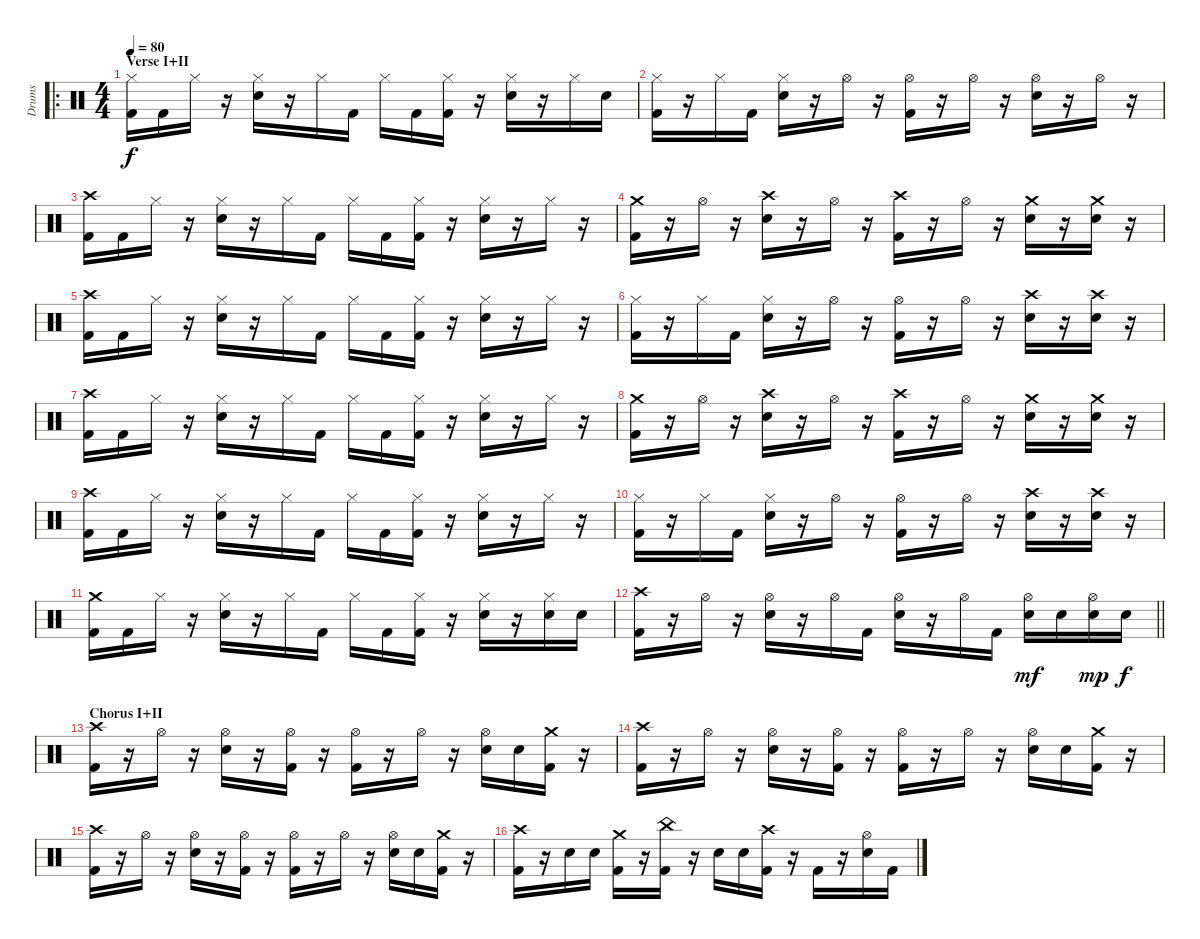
\track ("Drums" "Drums") {instrument percussion}
\staff {score}
\articulation defaults
\ro
\ts (4 4)
\section ("" "Verse I+II")
\tempo 80
\clef neutral
\ks c
("Hi-Hat (closed)" "Kick (hit) 2").16{dy f} "Kick (hit) 2".16 "Hi-Hat (closed)".16 r.16 ("Hi-Hat (closed)" "Electric Snare (hit)").16 r.16 "Hi-Hat (closed)".16 "Kick (hit) 2".16 "Hi-Hat (closed)".16 "Kick (hit) 2".16 ("Hi-Hat (closed)" "Kick (hit) 2").16 r.16 ("Hi-Hat (closed)" "Electric Snare (hit)").16 r.16 "Hi-Hat (closed)".16 "Electric Snare (hit)".16 |
("Hi-Hat (closed)" "Kick (hit) 2").16 r.16 "Hi-Hat (closed)".16 "Kick (hit) 2".16 ("Hi-Hat (closed)" "Electric Snare (hit)").16 r.16 "Hi-Hat (open)".16 r.16 ("Hi-Hat (open)" "Kick (hit) 2").16 r.16 "Hi-Hat (open)".16 r.16 ("Hi-Hat (open)" "Electric Snare (hit)").16 r.16 "Hi-Hat (open)".16 r.16 |
("Crash high (hit)" "Kick (hit) 2").16 "Kick (hit) 2".16 "Hi-Hat (closed)".16 r.16 ("Hi-Hat (closed)" "Electric Snare (hit)").16 r.16 "Hi-Hat (closed)".16 "Kick (hit) 2".16 "Hi-Hat (closed)".16 "Kick (hit) 2".16 ("Hi-Hat (closed)" "Kick (hit) 2").16 r.16 ("Hi-Hat (closed)" "Electric Snare (hit)").16 r.16 "Hi-Hat (closed)".16 r.16 |
("Crash medium (hit)" "Kick (hit) 2").16 r.16 "Hi-Hat (open)".16 r.16 ("Crash high (hit)" "Electric Snare (hit)").16 r.16 "Hi-Hat (open)".16 r.16 ("Crash high (hit)" "Kick (hit) 2").16 r.16 "Hi-Hat (open)".16 r.16 ("Crash medium (hit)" "Electric Snare (hit)").16 r.16 ("Crash medium (hit)" "Electric Snare (hit)").16 r.16 |
("Crash high (hit)" "Kick (hit) 2").16 "Kick (hit) 2".16 "Hi-Hat (closed)".16 r.16 ("Hi-Hat (closed)" "Electric Snare (hit)").16 r.16 "Hi-Hat (closed)".16 "Kick (hit) 2".16 "Hi-Hat (closed)".16 "Kick (hit) 2".16 ("Hi-Hat (closed)" "Kick (hit) 2").16 r.16 ("Hi-Hat (closed)" "Electric Snare (hit)").16 r.16 "Hi-Hat (closed)".16 r.16 |
("Hi-Hat (closed)" "Kick (hit) 2").16 r.16 "Hi-Hat (closed)".16 "Kick (hit) 2".16 ("Hi-Hat (closed)" "Electric Snare (hit)").16 r.16 "Hi-Hat (open)".16 r.16 ("Hi-Hat (open)" "Kick (hit) 2").16 r.16 "Hi-Hat (open)".16 r.16 ("Crash high (hit)" "Electric Snare (hit)").16 r.16 ("Crash high (hit)" "Electric Snare (hit)").16 r.16 |
("Crash high (hit)" "Kick (hit) 2").16 "Kick (hit) 2".16 "Hi-Hat (closed)".16 r.16 ("Hi-Hat (closed)" "Electric Snare (hit)").16 r.16 "Hi-Hat (closed)".16 "Kick (hit) 2".16 "Hi-Hat (closed)".16 "Kick (hit) 2".16 ("Hi-Hat (closed)" "Kick (hit) 2").16 r.16 ("Hi-Hat (closed)" "Electric Snare (hit)").16 r.16 "Hi-Hat (closed)".16 r.16 |
("Crash medium (hit)" "Kick (hit) 2").16 r.16 "Hi-Hat (open)".16 r.16 ("Crash high (hit)" "Electric Snare (hit)").16 r.16 "Hi-Hat (open)".16 r.16 ("Crash high (hit)" "Kick (hit) 2").16 r.16 "Hi-Hat (open)".16 r.16 ("Crash medium (hit)" "Electric Snare (hit)").16 r.16 ("Crash medium (hit)" "Electric Snare (hit)").16 r.16 |
("Crash high (hit)" "Kick (hit) 2").16 "Kick (hit) 2".16 "Hi-Hat (closed)".16 r.16 ("Hi-Hat (closed)" "Electric Snare (hit)").16 r.16 "Hi-Hat (closed)".16 "Kick (hit) 2".16 "Hi-Hat (closed)".16 "Kick (hit) 2".16 ("Hi-Hat (closed)" "Kick (hit) 2").16 r.16 ("Hi-Hat (closed)" "Electric Snare (hit)").16 r.16 "Hi-Hat (closed)".16 r.16 |
("Hi-Hat (closed)" "Kick (hit) 2").16 r.16 "Hi-Hat (closed)".16 "Kick (hit) 2".16 ("Hi-Hat (closed)" "Electric Snare (hit)").16 r.16 "Hi-Hat (open)".16 r.16 ("Hi-Hat (open)" "Kick (hit) 2").16 r.16 "Hi-Hat (open)".16 r.16 ("Crash high (hit)" "Electric Snare (hit)").16 r.16 ("Crash high (hit)" "Electric Snare (hit)").16 r.16 |
("Crash medium (hit)" "Kick (hit) 2").16 "Kick (hit) 2".16 "Hi-Hat (closed)".16 r.16 ("Hi-Hat (closed)" "Electric Snare (hit)").16 r.16 "Hi-Hat (closed)".16 "Kick (hit) 2".16 "Hi-Hat (closed)".16 "Kick (hit) 2".16 ("Hi-Hat (closed)" "Kick (hit) 2").16 r.16 ("Hi-Hat (closed)" "Electric Snare (hit)").16 r.16 ("Hi-Hat (closed)" "Electric Snare (hit)").16 "Electric Snare (hit)".16 |
\barLineRight lightlight
("Crash high (hit)" "Kick (hit) 2").16 r.16 "Hi-Hat (open)".16 r.16 ("Hi-Hat (open)" "Electric Snare (hit)").16 r.16 "Hi-Hat (open)".16 "Kick (hit) 2".16 ("Hi-Hat (open)" "Electric Snare (hit)").16 r.16 "Hi-Hat (open)".16 "Kick (hit) 2".16 ("Hi-Hat (open)" "Electric Snare (hit)").16{dy mf} "Electric Snare (hit)".16 ("Hi-Hat (open)" "Electric Snare (hit)").16{dy mp} "Electric Snare (hit)".16{dy f} |
\section ("" "Chorus I+II")
("Crash high (hit)" "Kick (hit) 2").16{volume 13} r.16 "Hi-Hat (open)".16 r.16 ("Hi-Hat (open)" "Electric Snare (hit)").16 r.16 ("Hi-Hat (open)" "Kick (hit) 2").16 r.16 ("Hi-Hat (open)" "Kick (hit) 2").16 r.16 "Hi-Hat (open)".16 r.16 ("Hi-Hat (open)" "Electric Snare (hit)").16 "Electric Snare (hit)".16 ("Crash medium (hit)" "Kick (hit) 2").16 r.16 |
("Crash high (hit)" "Kick (hit) 2").16{volume 13} r.16 "Hi-Hat (open)".16 r.16 ("Hi-Hat (open)" "Electric Snare (hit)").16 r.16 ("Hi-Hat (open)" "Kick (hit) 2").16 r.16 ("Hi-Hat (open)" "Kick (hit) 2").16 r.16 "Hi-Hat (open)".16 r.16 ("Hi-Hat (open)" "Electric Snare (hit)").16 "Electric Snare (hit)".16 ("Crash medium (hit)" "Kick (hit) 2").16 r.16 |
("Crash high (hit)" "Kick (hit) 2").16{volume 13} r.16 "Hi-Hat (open)".16 r.16 ("Hi-Hat (open)" "Electric Snare (hit)").16 r.16 ("Hi-Hat (open)" "Kick (hit) 2").16 r.16 ("Hi-Hat (open)" "Kick (hit) 2").16 r.16 "Hi-Hat (open)".16 r.16 ("Hi-Hat (open)" "Electric Snare (hit)").16 "Electric Snare (hit)".16 ("Crash medium (hit)" "Kick (hit) 2").16 r.16 |
("Crash high (hit)" "Kick (hit) 2").16 r.16 "Electric Snare (hit)".16 "Electric Snare (hit)".16 ("Crash medium (hit)" "Kick (hit) 2").16 r.16 ("China (hit)" "Kick (hit) 2").16 r.16 "Electric Snare (hit)".16 "Electric Snare (hit)".16 ("Crash high (hit)" "Kick (hit) 2").16 r.16 "Kick (hit) 2".16 r.16 ("Hi-Hat (open)" "Electric Snare (hit)").16 "Kick (hit) 2".16
